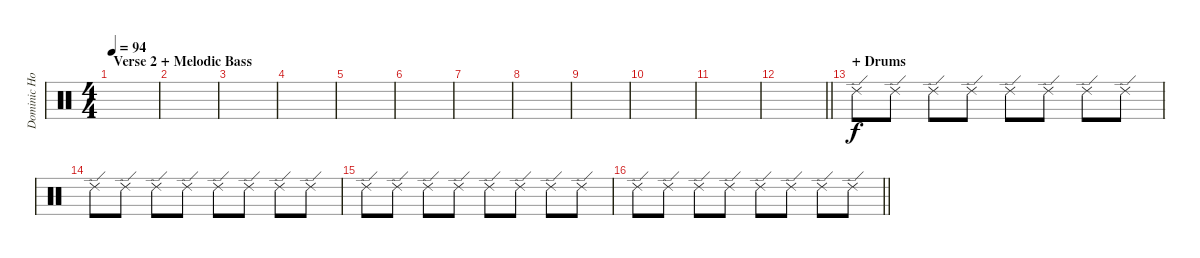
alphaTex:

\track ("Dominic Howard - Drums" "Dominic Ho") {instrument percussion}
\staff {score}
\articulation defaults
\ts (4 4)
\section ("" "Verse 2 + Melodic Bass")
\tempo 94
\clef neutral
\ks c
|
|
|
|
|
|
|
|
|
|
|
\barLineRight lightlight
|
\section ("" "+ Drums")
"Ride (edge) 2".8 "Ride (edge) 2".8 "Ride (edge) 2".8 "Ride (edge) 2".8 "Ride (edge) 2".8 "Ride (edge) 2".8 "Ride (edge) 2".8 "Ride (edge) 2".8 |
"Ride (edge) 2".8 "Ride (edge) 2".8 "Ride (edge) 2".8 "Ride (edge) 2".8 "Ride (edge) 2".8 "Ride (edge) 2".8 "Ride (edge) 2".8 "Ride (edge) 2".8 |
"Ride (edge) 2".8 "Ride (edge) 2".8 "Ride (edge) 2".8 "Ride (edge) 2".8 "Ride (edge) 2".8 "Ride (edge) 2".8 "Ride (edge) 2".8 "Ride (edge) 2".8 |
\barLineRight lightlight "Ride (edge) 2".8 "Ride (edge) 2".8 "Ride (edge) 2".8 "Ride (edge) 2".8 "Ride (edge) 2".8 "Ride (edge) 2".8 "Ride (edge) 2".8 "Ride (edge) 2".8
